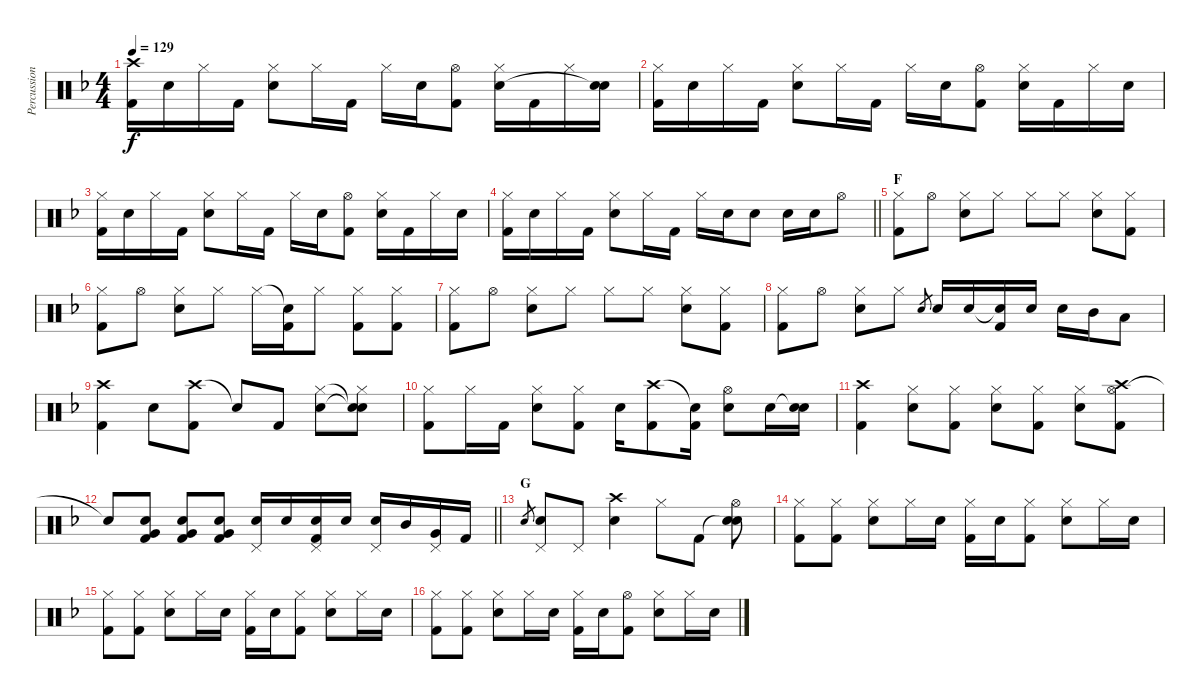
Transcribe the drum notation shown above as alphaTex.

\track ("Percussion" "Percussion") {instrument percussion}
\staff {score}
\articulation defaults
\ts (4 4)
\tempo 129
\clef neutral
\ks f
("Kick (hit) 2" "Crash high (hit)").16{dy f} "Electric Snare (hit)".16 "Hi-Hat (closed)".16 "Kick (hit) 2".16 ("Hi-Hat (closed)" "Electric Snare (hit)").8 "Hi-Hat (closed)".16 "Kick (hit) 2".16 "Hi-Hat (closed)".16 "Electric Snare (hit)".16 ("Hi-Hat (open)" "Kick (hit) 2").8 ("Hi-Hat (closed)" "Electric Snare (hit)").16 "Kick (hit) 2".16 "Hi-Hat (closed)".16 ("Electric Snare (hit)" "Snare (hit)"{t}).16 |
("Hi-Hat (closed)" "Kick (hit) 2").16 "Electric Snare (hit)".16 "Hi-Hat (closed)".16 "Kick (hit) 2".16 ("Hi-Hat (closed)" "Electric Snare (hit)").8 "Hi-Hat (closed)".16 "Kick (hit) 2".16 "Hi-Hat (closed)".16 "Electric Snare (hit)".16 ("Hi-Hat (open)" "Kick (hit) 2").8 ("Hi-Hat (closed)" "Electric Snare (hit)").16 "Kick (hit) 2".16 "Hi-Hat (closed)".16 "Electric Snare (hit)".16 |
("Hi-Hat (closed)" "Kick (hit) 2").16 "Electric Snare (hit)".16 "Hi-Hat (closed)".16 "Kick (hit) 2".16 ("Hi-Hat (closed)" "Electric Snare (hit)").8 "Hi-Hat (closed)".16 "Kick (hit) 2".16 "Hi-Hat (closed)".16 "Electric Snare (hit)".16 ("Hi-Hat (open)" "Kick (hit) 2").8 ("Hi-Hat (closed)" "Electric Snare (hit)").16 "Kick (hit) 2".16 "Hi-Hat (closed)".16 "Electric Snare (hit)".16 |
\barLineRight lightlight
("Hi-Hat (closed)" "Kick (hit) 2").16 "Electric Snare (hit)".16 "Hi-Hat (closed)".16 "Kick (hit) 2".16 ("Hi-Hat (closed)" "Electric Snare (hit)").8 "Hi-Hat (closed)".16 "Kick (hit) 2".16 "Hi-Hat (closed)".16 "Electric Snare (hit)".16 "Electric Snare (hit)".8 "Electric Snare (hit)".16 "Electric Snare (hit)".16 "Hi-Hat (open)".8 |
\section ("" "F")
("Hi-Hat (closed)" "Kick (hit) 2").8 "Hi-Hat (open)".8 ("Hi-Hat (closed)" "Snare (hit) 2").8 "Hi-Hat (closed)".8 "Hi-Hat (closed)".8 "Hi-Hat (closed)".8 ("Hi-Hat (closed)" "Snare (hit) 2").8 ("Hi-Hat (closed)" "Kick (hit) 2").8 |
("Hi-Hat (closed)" "Kick (hit) 2").8 "Hi-Hat (open)".8 ("Hi-Hat (closed)" "Snare (hit) 2").8 "Hi-Hat (closed)".8 "Hi-Hat (closed)".16 ("Snare (hit)"{t} "Kick (hit) 2").16 "Hi-Hat (closed)".8 ("Hi-Hat (closed)" "Kick (hit) 2").8 ("Hi-Hat (closed)" "Kick (hit) 2").8 |
("Hi-Hat (closed)" "Kick (hit) 2").8 "Hi-Hat (open)".8 ("Hi-Hat (closed)" "Snare (hit) 2").8 "Hi-Hat (closed)".8 "Hi-Hat (closed)".8 "Hi-Hat (closed)".8 ("Hi-Hat (closed)" "Snare (hit) 2").8 ("Hi-Hat (closed)" "Kick (hit) 2").8 |
("Hi-Hat (closed)" "Kick (hit) 2").8 "Hi-Hat (open)".8 ("Hi-Hat (closed)" "Snare (hit) 2").8 "Hi-Hat (closed)".8 "Electric Snare (hit)".8{gr} "Electric Snare (hit)".16{volume 13} "Electric Snare (hit)".16 ("Snare (hit)"{t} "Kick (hit) 2").16 "Electric Snare (hit)".16 "Electric Snare (hit)".16 "Mid Tom (hit)".16 "Low Tom (hit)".8 |
("Crash high (hit)" "Kick (hit) 2").4 "Electric Snare (hit)".8 ("Crash high (hit)" "Kick (hit) 2").8 "Snare (hit)"{t}.8 "Kick (hit) 2".8 ("Electric Snare (hit)" "Hi-Hat (closed)").8 ("Snare (hit)"{t} "Snare (hit)"{t} "Hi-Hat (closed)").8 |
("Hi-Hat (closed)" "Kick (hit) 2").8 "Hi-Hat (closed)".16 "Kick (hit) 2".16 ("Hi-Hat (closed)" "Electric Snare (hit)").8 ("Hi-Hat (closed)" "Kick (hit) 2").8 "Electric Snare (hit)".16 ("Crash high (hit)" "Kick (hit) 2").8 ("Snare (hit)"{t} "Kick (hit) 2").16 ("Hi-Hat (open)" "Electric Snare (hit)").8 "Electric Snare (hit)".16 ("Snare (hit)"{t} "Electric Snare (hit)").16 |
("Crash high (hit)" "Kick (hit) 2").4 ("Hi-Hat (closed)" "Electric Snare (hit)").8 ("Hi-Hat (closed)" "Kick (hit) 2").8 ("Hi-Hat (closed)" "Electric Snare (hit)").8 ("Hi-Hat (closed)" "Kick (hit) 2").8 ("Hi-Hat (closed)" "Electric Snare (hit)").8 ("Hi-Hat (open)" "Crash high (hit)" "Kick (hit) 2").8 |
\barLineRight lightlight "Snare (hit)"{t}.8
("Electric Snare (hit)" "Very Low Tom (hit)" "Kick (hit) 2").8 ("Electric Snare (hit)" "Very Low Tom (hit)" "Kick (hit) 2").8 ("Electric Snare (hit)" "Very Low Tom (hit)" "Kick (hit) 2").8 ("Electric Snare (hit)" "Pedal Hi-Hat (hit)").16 "Electric Snare (hit)".16 ("Electric Snare (hit)" "Pedal Hi-Hat (hit)" "Kick (hit) 2").16 "Electric Snare (hit)".16 ("Electric Snare (hit)" "Pedal Hi-Hat (hit)").16 "Mid Tom (hit)".16 ("Very Low Tom (hit)" "Pedal Hi-Hat (hit)").16 "Kick (hit) 2".16 |
\section ("" "G")
"Electric Snare (hit)".8{gr} ("Electric Snare (hit)" "Pedal Hi-Hat (hit)").8 "Pedal Hi-Hat (hit)".8 ("Crash high (hit)" "Electric Snare (hit)").4 "Hi-Hat (closed)".8 "Kick (hit) 2".8 ("Snare (hit)"{t} "Hi-Hat (open)" "Electric Snare (hit)").8 |
("Hi-Hat (closed)" "Kick (hit) 2").8 ("Hi-Hat (closed)" "Kick (hit) 2").8 ("Hi-Hat (closed)" "Electric Snare (hit)").8 "Hi-Hat (closed)".16 "Electric Snare (hit)".16 ("Hi-Hat (closed)" "Kick (hit) 2").16 "Electric Snare (hit)".16 ("Hi-Hat (closed)" "Kick (hit) 2").8 ("Hi-Hat (closed)" "Electric Snare (hit)").8 "Hi-Hat (closed)".16 "Electric Snare (hit)".16 |
("Hi-Hat (closed)" "Kick (hit) 2").8 ("Hi-Hat (closed)" "Kick (hit) 2").8 ("Hi-Hat (closed)" "Electric Snare (hit)").8 "Hi-Hat (closed)".16 "Electric Snare (hit)".16 ("Hi-Hat (closed)" "Kick (hit) 2").16 "Electric Snare (hit)".16 ("Hi-Hat (closed)" "Kick (hit) 2").8 ("Hi-Hat (closed)" "Electric Snare (hit)").8 "Hi-Hat (closed)".16 "Electric Snare (hit)".16 |
("Hi-Hat (closed)" "Kick (hit) 2").8 ("Hi-Hat (closed)" "Kick (hit) 2").8 ("Hi-Hat (closed)" "Electric Snare (hit)").8 "Hi-Hat (closed)".16 "Electric Snare (hit)".16 ("Hi-Hat (closed)" "Kick (hit) 2").16 "Electric Snare (hit)".16 ("Hi-Hat (open)" "Kick (hit) 2").8 ("Hi-Hat (closed)" "Electric Snare (hit)").8 "Hi-Hat (closed)".16 "Electric Snare (hit)".16
